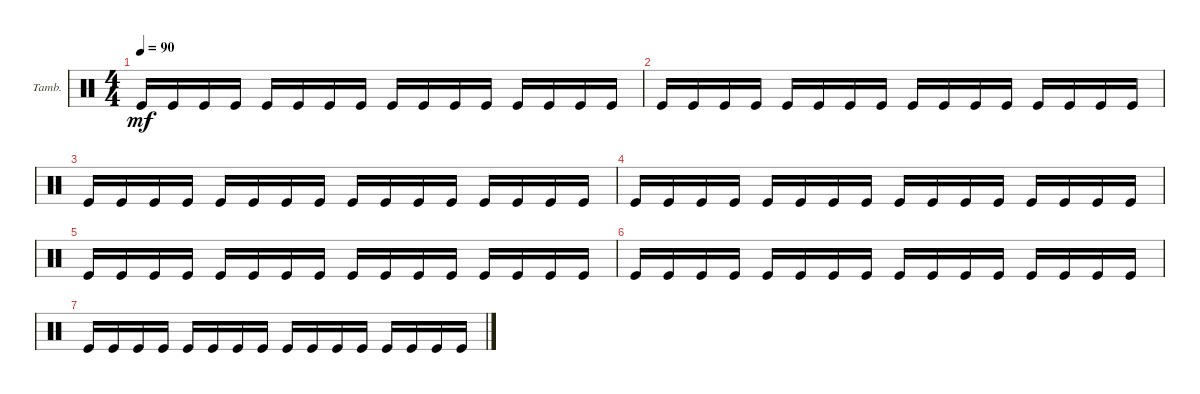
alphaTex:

\defaultSystemsLayout 4
\bracketExtendMode groupsimilarinstruments
\firstSystemTrackNameOrientation horizontal
\otherSystemsTrackNameOrientation horizontal
\track ("Tambourine" "Tamb.") {instrument percussion}
\staff {score}
\articulation defaults
\ts (4 4)
\tempo 90
\clef neutral
\ks c "Kick (hit)".16{dy mf} "Kick (hit)".16 "Kick (hit)".16 "Kick (hit)".16 "Kick (hit)".16 "Kick (hit)".16 "Kick (hit)".16 "Kick (hit)".16 "Kick (hit)".16 "Kick (hit)".16 "Kick (hit)".16 "Kick (hit)".16 "Kick (hit)".16 "Kick (hit)".16 "Kick (hit)".16 "Kick (hit)".16
|
"Kick (hit)".16 "Kick (hit)".16 "Kick (hit)".16 "Kick (hit)".16 "Kick (hit)".16 "Kick (hit)".16 "Kick (hit)".16 "Kick (hit)".16 "Kick (hit)".16 "Kick (hit)".16 "Kick (hit)".16 "Kick (hit)".16 "Kick (hit)".16 "Kick (hit)".16 "Kick (hit)".16 "Kick (hit)".16 |
"Kick (hit)".16 "Kick (hit)".16 "Kick (hit)".16 "Kick (hit)".16 "Kick (hit)".16 "Kick (hit)".16 "Kick (hit)".16 "Kick (hit)".16 "Kick (hit)".16 "Kick (hit)".16 "Kick (hit)".16 "Kick (hit)".16 "Kick (hit)".16 "Kick (hit)".16 "Kick (hit)".16 "Kick (hit)".16 |
"Kick (hit)".16 "Kick (hit)".16 "Kick (hit)".16 "Kick (hit)".16 "Kick (hit)".16 "Kick (hit)".16 "Kick (hit)".16 "Kick (hit)".16 "Kick (hit)".16 "Kick (hit)".16 "Kick (hit)".16 "Kick (hit)".16 "Kick (hit)".16 "Kick (hit)".16 "Kick (hit)".16 "Kick (hit)".16 |
"Kick (hit)".16 "Kick (hit)".16 "Kick (hit)".16 "Kick (hit)".16 "Kick (hit)".16 "Kick (hit)".16 "Kick (hit)".16 "Kick (hit)".16 "Kick (hit)".16 "Kick (hit)".16 "Kick (hit)".16 "Kick (hit)".16 "Kick (hit)".16 "Kick (hit)".16 "Kick (hit)".16 "Kick (hit)".16 |
"Kick (hit)".16 "Kick (hit)".16 "Kick (hit)".16 "Kick (hit)".16 "Kick (hit)".16 "Kick (hit)".16 "Kick (hit)".16 "Kick (hit)".16 "Kick (hit)".16 "Kick (hit)".16 "Kick (hit)".16 "Kick (hit)".16 "Kick (hit)".16 "Kick (hit)".16 "Kick (hit)".16 "Kick (hit)".16 |
"Kick (hit)".16 "Kick (hit)".16 "Kick (hit)".16 "Kick (hit)".16 "Kick (hit)".16 "Kick (hit)".16 "Kick (hit)".16 "Kick (hit)".16 "Kick (hit)".16 "Kick (hit)".16 "Kick (hit)".16 "Kick (hit)".16 "Kick (hit)".16 "Kick (hit)".16 "Kick (hit)".16 "Kick (hit)".16
